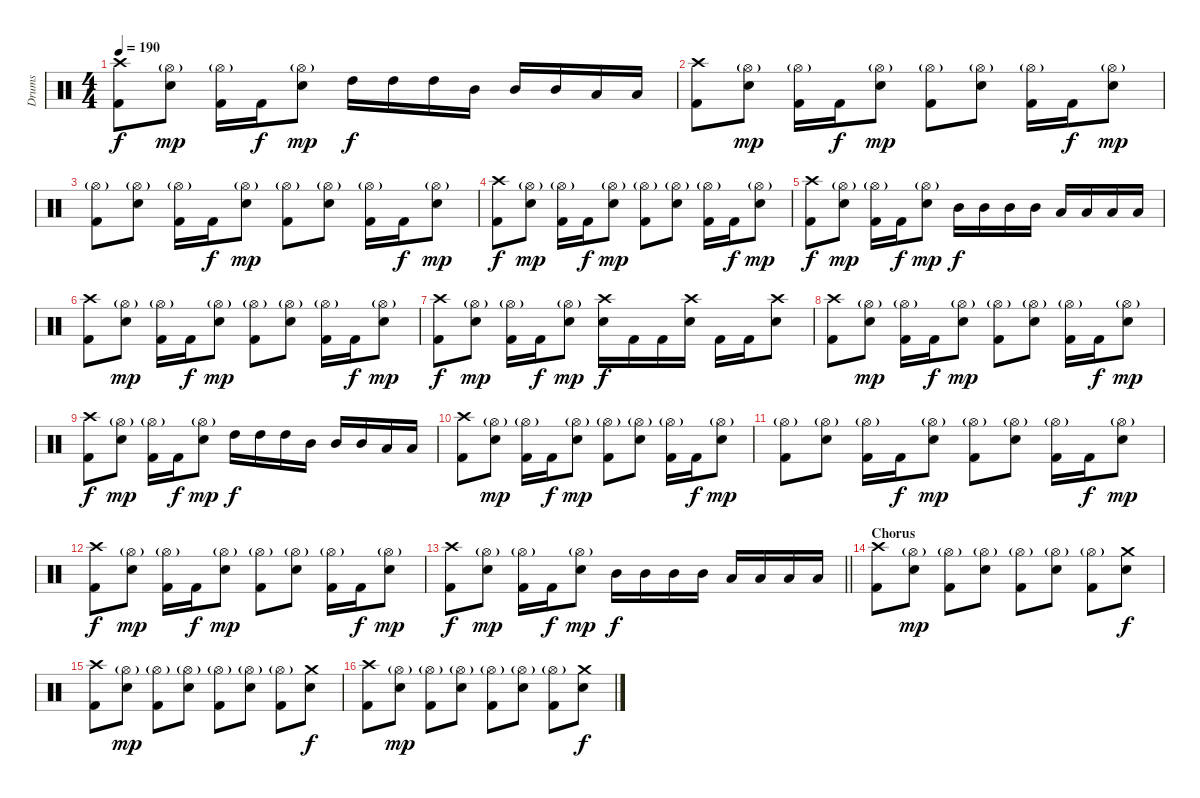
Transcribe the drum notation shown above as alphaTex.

\track ("Drums" "Drums") {instrument percussion}
\staff {score}
\articulation defaults
\ts (4 4)
\tempo 190
\clef neutral
\ks c
("Crash high (hit)" "Kick (hit) 2").8{dy f} ("Hi-Hat (open)"{g} "Electric Snare (hit)").8{dy mp} ("Hi-Hat (open)"{g} "Kick (hit) 2").16 "Kick (hit) 2".16{dy f} ("Hi-Hat (open)"{g} "Electric Snare (hit)").8{dy mp} "High Tom (hit)".16{dy f} "High Tom (hit)".16 "High Tom (hit)".16 "Mid Tom (hit)".16 "Mid Tom (hit)".16 "Mid Tom (hit)".16 "Low Tom (hit)".16 "Low Tom (hit)".16 |
("Crash high (hit)" "Kick (hit) 2").8 ("Hi-Hat (open)"{g} "Electric Snare (hit)").8{dy mp} ("Hi-Hat (open)"{g} "Kick (hit) 2").16 "Kick (hit) 2".16{dy f} ("Hi-Hat (open)"{g} "Electric Snare (hit)").8{dy mp} ("Hi-Hat (open)"{g} "Kick (hit) 2").8 ("Hi-Hat (open)"{g} "Electric Snare (hit)").8 ("Hi-Hat (open)"{g} "Kick (hit) 2").16 "Kick (hit) 2".16{dy f} ("Hi-Hat (open)"{g} "Electric Snare (hit)").8{dy mp} |
("Hi-Hat (open)"{g} "Kick (hit) 2").8 ("Hi-Hat (open)"{g} "Electric Snare (hit)").8 ("Hi-Hat (open)"{g} "Kick (hit) 2").16 "Kick (hit) 2".16{dy f} ("Hi-Hat (open)"{g} "Electric Snare (hit)").8{dy mp} ("Hi-Hat (open)"{g} "Kick (hit) 2").8 ("Hi-Hat (open)"{g} "Electric Snare (hit)").8 ("Hi-Hat (open)"{g} "Kick (hit) 2").16 "Kick (hit) 2".16{dy f} ("Hi-Hat (open)"{g} "Electric Snare (hit)").8{dy mp} |
("Crash high (hit)" "Kick (hit) 2").8{dy f} ("Hi-Hat (open)"{g} "Electric Snare (hit)").8{dy mp} ("Hi-Hat (open)"{g} "Kick (hit) 2").16 "Kick (hit) 2".16{dy f} ("Hi-Hat (open)"{g} "Electric Snare (hit)").8{dy mp} ("Hi-Hat (open)"{g} "Kick (hit) 2").8 ("Hi-Hat (open)"{g} "Electric Snare (hit)").8 ("Hi-Hat (open)"{g} "Kick (hit) 2").16 "Kick (hit) 2".16{dy f} ("Hi-Hat (open)"{g} "Electric Snare (hit)").8{dy mp} |
("Crash high (hit)" "Kick (hit) 2").8{dy f} ("Hi-Hat (open)"{g} "Electric Snare (hit)").8{dy mp} ("Hi-Hat (open)"{g} "Kick (hit) 2").16 "Kick (hit) 2".16{dy f} ("Hi-Hat (open)"{g} "Electric Snare (hit)").8{dy mp} "Mid Tom (hit)".16{dy f} "Mid Tom (hit)".16 "Mid Tom (hit)".16 "Mid Tom (hit)".16 "Low Tom (hit)".16 "Low Tom (hit)".16 "Low Tom (hit)".16 "Low Tom (hit)".16 |
("Crash high (hit)" "Kick (hit) 2").8 ("Hi-Hat (open)"{g} "Electric Snare (hit)").8{dy mp} ("Hi-Hat (open)"{g} "Kick (hit) 2").16 "Kick (hit) 2".16{dy f} ("Hi-Hat (open)"{g} "Electric Snare (hit)").8{dy mp} ("Hi-Hat (open)"{g} "Kick (hit) 2").8 ("Hi-Hat (open)"{g} "Electric Snare (hit)").8 ("Hi-Hat (open)"{g} "Kick (hit) 2").16 "Kick (hit) 2".16{dy f} ("Hi-Hat (open)"{g} "Electric Snare (hit)").8{dy mp} |
("Crash high (hit)" "Kick (hit) 2").8{dy f} ("Hi-Hat (open)"{g} "Electric Snare (hit)").8{dy mp} ("Hi-Hat (open)"{g} "Kick (hit) 2").16 "Kick (hit) 2".16{dy f} ("Hi-Hat (open)"{g} "Electric Snare (hit)").8{dy mp} ("Crash high (hit)" "Electric Snare (hit)").16{dy f} "Kick (hit) 2".16 "Kick (hit) 2".16 ("Crash high (hit)" "Electric Snare (hit)").16 "Kick (hit) 2".16 "Kick (hit) 2".16 ("Crash high (hit)" "Electric Snare (hit)").8 |
("Crash high (hit)" "Kick (hit) 2").8 ("Hi-Hat (open)"{g} "Electric Snare (hit)").8{dy mp} ("Hi-Hat (open)"{g} "Kick (hit) 2").16 "Kick (hit) 2".16{dy f} ("Hi-Hat (open)"{g} "Electric Snare (hit)").8{dy mp} ("Hi-Hat (open)"{g} "Kick (hit) 2").8 ("Hi-Hat (open)"{g} "Electric Snare (hit)").8 ("Hi-Hat (open)"{g} "Kick (hit) 2").16 "Kick (hit) 2".16{dy f} ("Hi-Hat (open)"{g} "Electric Snare (hit)").8{dy mp} |
("Crash high (hit)" "Kick (hit) 2").8{dy f} ("Hi-Hat (open)"{g} "Electric Snare (hit)").8{dy mp} ("Hi-Hat (open)"{g} "Kick (hit) 2").16 "Kick (hit) 2".16{dy f} ("Hi-Hat (open)"{g} "Electric Snare (hit)").8{dy mp} "High Tom (hit)".16{dy f} "High Tom (hit)".16 "High Tom (hit)".16 "Mid Tom (hit)".16 "Mid Tom (hit)".16 "Mid Tom (hit)".16 "Low Tom (hit)".16 "Low Tom (hit)".16 |
("Crash high (hit)" "Kick (hit) 2").8 ("Hi-Hat (open)"{g} "Electric Snare (hit)").8{dy mp} ("Hi-Hat (open)"{g} "Kick (hit) 2").16 "Kick (hit) 2".16{dy f} ("Hi-Hat (open)"{g} "Electric Snare (hit)").8{dy mp} ("Hi-Hat (open)"{g} "Kick (hit) 2").8 ("Hi-Hat (open)"{g} "Electric Snare (hit)").8 ("Hi-Hat (open)"{g} "Kick (hit) 2").16 "Kick (hit) 2".16{dy f} ("Hi-Hat (open)"{g} "Electric Snare (hit)").8{dy mp} |
("Hi-Hat (open)"{g} "Kick (hit) 2").8 ("Hi-Hat (open)"{g} "Electric Snare (hit)").8 ("Hi-Hat (open)"{g} "Kick (hit) 2").16 "Kick (hit) 2".16{dy f} ("Hi-Hat (open)"{g} "Electric Snare (hit)").8{dy mp} ("Hi-Hat (open)"{g} "Kick (hit) 2").8 ("Hi-Hat (open)"{g} "Electric Snare (hit)").8 ("Hi-Hat (open)"{g} "Kick (hit) 2").16 "Kick (hit) 2".16{dy f} ("Hi-Hat (open)"{g} "Electric Snare (hit)").8{dy mp} |
("Crash high (hit)" "Kick (hit) 2").8{dy f} ("Hi-Hat (open)"{g} "Electric Snare (hit)").8{dy mp} ("Hi-Hat (open)"{g} "Kick (hit) 2").16 "Kick (hit) 2".16{dy f} ("Hi-Hat (open)"{g} "Electric Snare (hit)").8{dy mp} ("Hi-Hat (open)"{g} "Kick (hit) 2").8 ("Hi-Hat (open)"{g} "Electric Snare (hit)").8 ("Hi-Hat (open)"{g} "Kick (hit) 2").16 "Kick (hit) 2".16{dy f} ("Hi-Hat (open)"{g} "Electric Snare (hit)").8{dy mp} |
\barLineRight lightlight
("Crash high (hit)" "Kick (hit) 2").8{dy f} ("Hi-Hat (open)"{g} "Electric Snare (hit)").8{dy mp} ("Hi-Hat (open)"{g} "Kick (hit) 2").16 "Kick (hit) 2".16{dy f} ("Hi-Hat (open)"{g} "Electric Snare (hit)").8{dy mp} "Mid Tom (hit)".16{dy f} "Mid Tom (hit)".16 "Mid Tom (hit)".16 "Mid Tom (hit)".16 "Low Tom (hit)".16 "Low Tom (hit)".16 "Low Tom (hit)".16 "Low Tom (hit)".16 |
\section ("" "Chorus")
("Crash high (hit)" "Kick (hit) 2").8 ("Hi-Hat (open)"{g} "Electric Snare (hit)").8{dy mp} ("Hi-Hat (open)"{g} "Kick (hit) 2").8 ("Hi-Hat (open)"{g} "Electric Snare (hit)").8 ("Hi-Hat (open)"{g} "Kick (hit) 2").8 ("Hi-Hat (open)"{g} "Electric Snare (hit)").8 ("Hi-Hat (open)"{g} "Kick (hit) 2").8 ("Crash medium (hit)" "Electric Snare (hit)").8{dy f} |
("Crash high (hit)" "Kick (hit) 2").8 ("Hi-Hat (open)"{g} "Electric Snare (hit)").8{dy mp} ("Hi-Hat (open)"{g} "Kick (hit) 2").8 ("Hi-Hat (open)"{g} "Electric Snare (hit)").8 ("Hi-Hat (open)"{g} "Kick (hit) 2").8 ("Hi-Hat (open)"{g} "Electric Snare (hit)").8 ("Hi-Hat (open)"{g} "Kick (hit) 2").8 ("Crash medium (hit)" "Electric Snare (hit)").8{dy f} |
("Crash high (hit)" "Kick (hit) 2").8 ("Hi-Hat (open)"{g} "Electric Snare (hit)").8{dy mp} ("Hi-Hat (open)"{g} "Kick (hit) 2").8 ("Hi-Hat (open)"{g} "Electric Snare (hit)").8 ("Hi-Hat (open)"{g} "Kick (hit) 2").8 ("Hi-Hat (open)"{g} "Electric Snare (hit)").8 ("Hi-Hat (open)"{g} "Kick (hit) 2").8 ("Crash medium (hit)" "Electric Snare (hit)").8{dy f}
